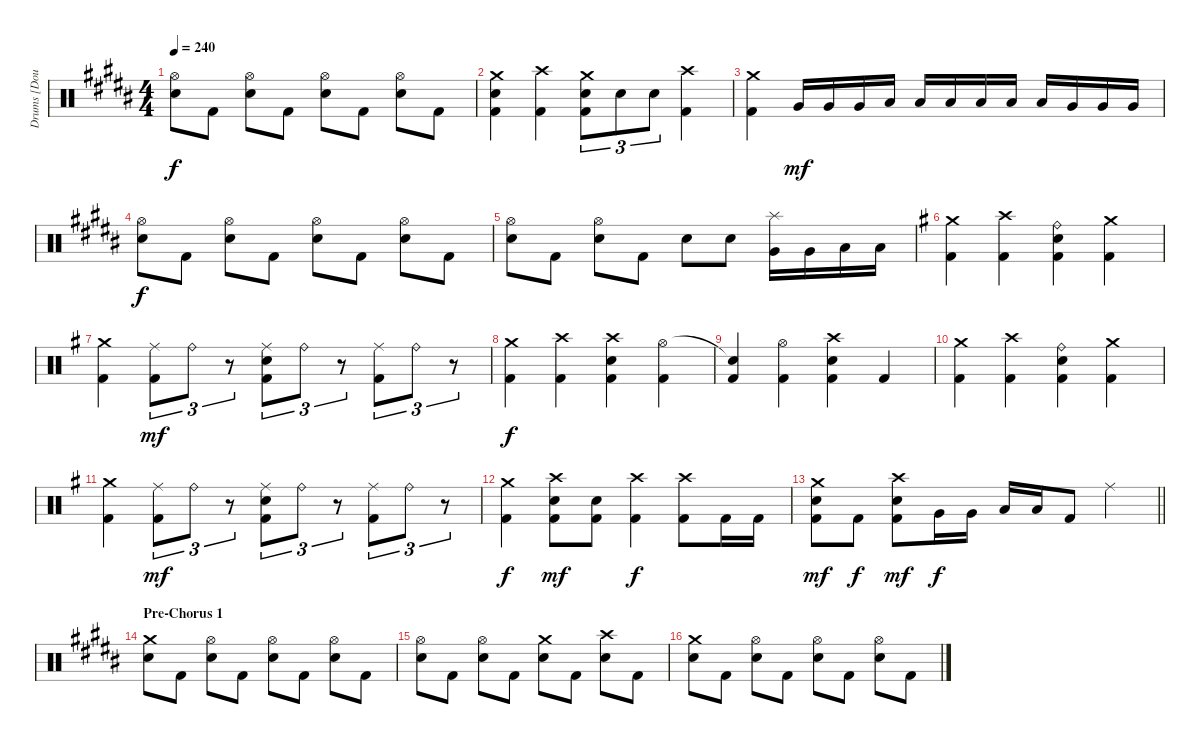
\track ("Drums [Doug Anderson]" "Drums [Dou") {instrument percussion}
\staff {score}
\articulation defaults
\ts (4 4)
\tempo 240
\clef neutral
\ks b
("Hi-Hat (open)" "Electric Snare (hit)").8{dy f} "Kick (hit) 2".8 ("Hi-Hat (open)" "Electric Snare (hit)").8 "Kick (hit) 2".8 ("Hi-Hat (open)" "Electric Snare (hit)").8 "Kick (hit) 2".8 ("Hi-Hat (open)" "Electric Snare (hit)").8 "Kick (hit) 2".8 |
("Crash medium (hit)" "Electric Snare (hit)" "Kick (hit) 2").4 ("Crash high (hit)" "Kick (hit) 2").4 ("Crash medium (hit)" "Electric Snare (hit)" "Kick (hit) 2").8{tu (3 2)} "Electric Snare (hit)".8{tu (3 2)} "Electric Snare (hit)".8{tu (3 2)} ("Crash high (hit)" "Kick (hit) 2").4 |
("Crash medium (hit)" "Kick (hit) 2").4 "Very Low Tom (hit)".16{dy mf} "Very Low Tom (hit)".16 "Very Low Tom (hit)".16 "Low Floor Tom (hit)".16 "Low Floor Tom (hit)".16 "Low Floor Tom (hit)".16 "Low Tom (hit)".16 "Low Tom (hit)".16 "Low Tom (hit)".16 "Very Low Tom (hit)".16 "Very Low Tom (hit)".16 "Very Low Tom (hit)".16 |
("Hi-Hat (open)" "Electric Snare (hit)").8{dy f} "Kick (hit) 2".8 ("Hi-Hat (open)" "Electric Snare (hit)").8 "Kick (hit) 2".8 ("Hi-Hat (open)" "Electric Snare (hit)").8 "Kick (hit) 2".8 ("Hi-Hat (open)" "Electric Snare (hit)").8 "Kick (hit) 2".8 |
("Hi-Hat (open)" "Electric Snare (hit)").8 "Kick (hit) 2".8 ("Hi-Hat (open)" "Electric Snare (hit)").8 "Kick (hit) 2".8 "Electric Snare (hit)".8 "Electric Snare (hit)".8 ("Splash (hit)" "Very Low Tom (hit)").16 "Very Low Tom (hit)".16 "Low Tom (hit)".16 "Low Tom (hit)".16 |
\ks g
("Crash medium (hit)" "Kick (hit) 2").4 ("Crash high (hit)" "Kick (hit) 2").4 ("Ride (bell)" "Electric Snare (hit)" "Kick (hit) 2").4 ("Crash medium (hit)" "Kick (hit) 2").4 |
("Crash medium (hit)" "Kick (hit) 2").4 ("Ride (middle)" "Kick (hit) 2").8{tu (3 2) dy mf} "Ride (bell)".8{tu (3 2)} r.8{tu (3 2)} ("Ride (middle)" "Electric Snare (hit)" "Kick (hit) 2").8{tu (3 2)} "Ride (bell)".8{tu (3 2)} r.8{tu (3 2)} ("Ride (middle)" "Kick (hit) 2").8{tu (3 2)} "Ride (bell)".8{tu (3 2)} r.8{tu (3 2)} |
("Crash medium (hit)" "Kick (hit) 2").4{dy f} ("Crash high (hit)" "Kick (hit) 2").4 ("Crash high (hit)" "Electric Snare (hit)" "Kick (hit) 2").4 ("Hi-Hat (open)" "Kick (hit) 2").4 |
("Snare (hit)"{t} "Kick (hit) 2").4 ("Hi-Hat (open)" "Kick (hit) 2").4 ("Crash high (hit)" "Electric Snare (hit)" "Kick (hit) 2").4 "Kick (hit) 2".4 |
("Crash medium (hit)" "Kick (hit) 2").4 ("Crash high (hit)" "Kick (hit) 2").4 ("Ride (bell)" "Electric Snare (hit)" "Kick (hit) 2").4 ("Crash medium (hit)" "Kick (hit) 2").4 |
("Crash medium (hit)" "Kick (hit) 2").4 ("Ride (middle)" "Kick (hit) 2").8{tu (3 2) dy mf} "Ride (bell)".8{tu (3 2)} r.8{tu (3 2)} ("Ride (middle)" "Electric Snare (hit)" "Kick (hit) 2").8{tu (3 2)} "Ride (bell)".8{tu (3 2)} r.8{tu (3 2)} ("Ride (middle)" "Kick (hit) 2").8{tu (3 2)} "Ride (bell)".8{tu (3 2)} r.8{tu (3 2)} |
("Crash medium (hit)" "Kick (hit) 2").4{dy f} ("Crash high (hit)" "Electric Snare (hit)" "Kick (hit) 2").8{dy mf} ("Electric Snare (hit)" "Kick (hit) 2").8 ("Crash high (hit)" "Kick (hit) 2").4{dy f} ("Crash high (hit)" "Kick (hit) 2").8 "Kick (hit) 2".16 "Kick (hit) 2".16 |
\barLineRight lightlight
("Crash medium (hit)" "Electric Snare (hit)" "Kick (hit) 2").8{dy mf} "Kick (hit) 2".8{dy f} ("Crash high (hit)" "Electric Snare (hit)" "Kick (hit) 2").8{dy mf} "Very Low Tom (hit)".16{dy f} "Very Low Tom (hit)".16 "Low Tom (hit)".16 "Low Tom (hit)".16 "Kick (hit) 2".8 "Ride (middle)".4 |
\section ("" "Pre-Chorus 1")
\ks b
("Crash medium (hit)" "Electric Snare (hit)").8 "Kick (hit) 2".8 ("Hi-Hat (open)" "Electric Snare (hit)").8 "Kick (hit) 2".8 ("Hi-Hat (open)" "Electric Snare (hit)").8 "Kick (hit) 2".8 ("Hi-Hat (open)" "Electric Snare (hit)").8 "Kick (hit) 2".8 |
("Hi-Hat (open)" "Electric Snare (hit)").8 "Kick (hit) 2".8 ("Hi-Hat (open)" "Electric Snare (hit)").8 "Kick (hit) 2".8 ("Crash medium (hit)" "Electric Snare (hit)").8 "Kick (hit) 2".8 ("Crash high (hit)" "Electric Snare (hit)").8 "Kick (hit) 2".8 |
("Crash medium (hit)" "Electric Snare (hit)").8 "Kick (hit) 2".8 ("Hi-Hat (open)" "Electric Snare (hit)").8 "Kick (hit) 2".8 ("Hi-Hat (open)" "Electric Snare (hit)").8 "Kick (hit) 2".8 ("Hi-Hat (open)" "Electric Snare (hit)").8 "Kick (hit) 2".8
